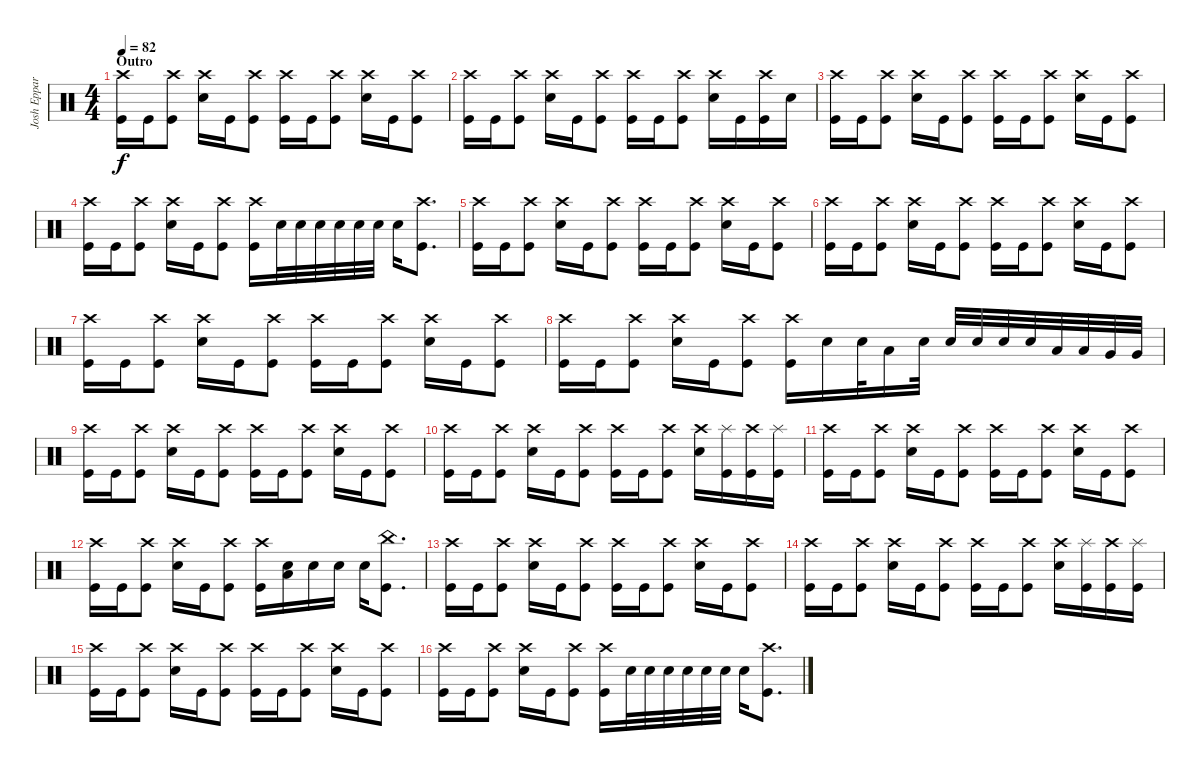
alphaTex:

\track ("Josh Eppard" "Josh Eppar") {instrument percussion}
\staff {score}
\articulation defaults
\ts (4 4)
\section ("" "Outro")
\tempo 82
\clef neutral
\ks c
("Crash high (hit)" "Kick (hit)").16{dy f} "Kick (hit)".16 ("Crash high (hit)" "Kick (hit)").8 ("Crash high (hit)" "Snare (hit) 2").16 "Kick (hit)".16 ("Crash high (hit)" "Kick (hit)").8 ("Crash high (hit)" "Kick (hit)").16 "Kick (hit)".16 ("Crash high (hit)" "Kick (hit)").8 ("Crash high (hit)" "Snare (hit) 2").16 "Kick (hit)".16 ("Crash high (hit)" "Kick (hit)").8 |
("Crash high (hit)" "Kick (hit)").16 "Kick (hit)".16 ("Crash high (hit)" "Kick (hit)").8 ("Crash high (hit)" "Snare (hit) 2").16 "Kick (hit)".16 ("Crash high (hit)" "Kick (hit)").8 ("Crash high (hit)" "Kick (hit)").16 "Kick (hit)".16 ("Crash high (hit)" "Kick (hit)").8 ("Crash high (hit)" "Snare (hit) 2").16 "Kick (hit)".16 ("Crash high (hit)" "Kick (hit)").16 "Snare (hit) 2".16 |
("Crash high (hit)" "Kick (hit)").16 "Kick (hit)".16 ("Crash high (hit)" "Kick (hit)").8 ("Crash high (hit)" "Snare (hit) 2").16 "Kick (hit)".16 ("Crash high (hit)" "Kick (hit)").8 ("Crash high (hit)" "Kick (hit)").16 "Kick (hit)".16 ("Crash high (hit)" "Kick (hit)").8 ("Crash high (hit)" "Snare (hit) 2").16 "Kick (hit)".16 ("Crash high (hit)" "Kick (hit)").8 |
("Crash high (hit)" "Kick (hit)").16 "Kick (hit)".16 ("Crash high (hit)" "Kick (hit)").8 ("Crash high (hit)" "Snare (hit) 2").16 "Kick (hit)".16 ("Crash high (hit)" "Kick (hit)").8 ("Crash high (hit)" "Kick (hit)").16 "Snare (hit) 2".32 "Snare (hit) 2".32 "Snare (hit) 2".32 "Snare (hit) 2".32 "Snare (hit) 2".32 "Snare (hit) 2".32 "Snare (hit) 2".16 ("Crash high (hit)" "Kick (hit)").8{d} |
("Crash high (hit)" "Kick (hit)").16 "Kick (hit)".16 ("Crash high (hit)" "Kick (hit)").8 ("Crash high (hit)" "Snare (hit) 2").16 "Kick (hit)".16 ("Crash high (hit)" "Kick (hit)").8 ("Crash high (hit)" "Kick (hit)").16 "Kick (hit)".16 ("Crash high (hit)" "Kick (hit)").8 ("Crash high (hit)" "Snare (hit) 2").16 "Kick (hit)".16 ("Crash high (hit)" "Kick (hit)").8 |
("Crash high (hit)" "Kick (hit)").16 "Kick (hit)".16 ("Crash high (hit)" "Kick (hit)").8 ("Crash high (hit)" "Snare (hit) 2").16 "Kick (hit)".16 ("Crash high (hit)" "Kick (hit)").8 ("Crash high (hit)" "Kick (hit)").16 "Kick (hit)".16 ("Crash high (hit)" "Kick (hit)").8 ("Crash high (hit)" "Snare (hit) 2").16 "Kick (hit)".16 ("Crash high (hit)" "Kick (hit)").8 |
("Crash high (hit)" "Kick (hit)").16 "Kick (hit)".16 ("Crash high (hit)" "Kick (hit)").8 ("Crash high (hit)" "Snare (hit) 2").16 "Kick (hit)".16 ("Crash high (hit)" "Kick (hit)").8 ("Crash high (hit)" "Kick (hit)").16 "Kick (hit)".16 ("Crash high (hit)" "Kick (hit)").8 ("Crash high (hit)" "Snare (hit) 2").16 "Kick (hit)".16 ("Crash high (hit)" "Kick (hit)").8 |
("Crash high (hit)" "Kick (hit)").16 "Kick (hit)".16 ("Crash high (hit)" "Kick (hit)").8 ("Crash high (hit)" "Snare (hit) 2").16 "Kick (hit)".16 ("Crash high (hit)" "Kick (hit)").8 ("Crash high (hit)" "Kick (hit)").16 "Snare (hit) 2".16 "Snare (hit) 2".32 "Low Tom (hit)".16 "Snare (hit) 2".32 "Snare (hit) 2".32 "Snare (hit) 2".32 "Snare (hit) 2".32 "Snare (hit) 2".32 "Low Tom (hit)".32 "Low Tom (hit)".32 "Very Low Tom (hit)".32 "Very Low Tom (hit)".32 |
("Crash high (hit)" "Kick (hit)").16 "Kick (hit)".16 ("Crash high (hit)" "Kick (hit)").8 ("Crash high (hit)" "Snare (hit) 2").16 "Kick (hit)".16 ("Crash high (hit)" "Kick (hit)").8 ("Crash high (hit)" "Kick (hit)").16 "Kick (hit)".16 ("Crash high (hit)" "Kick (hit)").8 ("Crash high (hit)" "Snare (hit) 2").16 "Kick (hit)".16 ("Crash high (hit)" "Kick (hit)").8 |
("Crash high (hit)" "Kick (hit)").16 "Kick (hit)".16 ("Crash high (hit)" "Kick (hit)").8 ("Crash high (hit)" "Snare (hit) 2").16 "Kick (hit)".16 ("Crash high (hit)" "Kick (hit)").8 ("Crash high (hit)" "Kick (hit)").16 "Kick (hit)".16 ("Crash high (hit)" "Kick (hit)").8 ("Crash high (hit)" "Snare (hit) 2").16 ("Kick (hit)" "Splash (hit)").16 ("Crash high (hit)" "Kick (hit)").16 ("Kick (hit)" "Splash (hit)").16 |
("Crash high (hit)" "Kick (hit)").16 "Kick (hit)".16 ("Crash high (hit)" "Kick (hit)").8 ("Crash high (hit)" "Snare (hit) 2").16 "Kick (hit)".16 ("Crash high (hit)" "Kick (hit)").8 ("Crash high (hit)" "Kick (hit)").16 "Kick (hit)".16 ("Crash high (hit)" "Kick (hit)").8 ("Crash high (hit)" "Snare (hit) 2").16 "Kick (hit)".16 ("Crash high (hit)" "Kick (hit)").8 |
("Crash high (hit)" "Kick (hit)").16 "Kick (hit)".16 ("Crash high (hit)" "Kick (hit)").8 ("Crash high (hit)" "Snare (hit) 2").16 "Kick (hit)".16 ("Crash high (hit)" "Kick (hit)").8 ("Crash high (hit)" "Kick (hit)").16 ("Snare (hit) 2" "Low Tom (hit)").16 "Snare (hit) 2".16 "Snare (hit) 2".16 "Snare (hit) 2".16 ("Kick (hit)" "China (hit)").8{d} |
("Crash high (hit)" "Kick (hit)").16 "Kick (hit)".16 ("Crash high (hit)" "Kick (hit)").8 ("Crash high (hit)" "Snare (hit) 2").16 "Kick (hit)".16 ("Crash high (hit)" "Kick (hit)").8 ("Crash high (hit)" "Kick (hit)").16 "Kick (hit)".16 ("Crash high (hit)" "Kick (hit)").8 ("Crash high (hit)" "Snare (hit) 2").16 "Kick (hit)".16 ("Crash high (hit)" "Kick (hit)").8 |
("Crash high (hit)" "Kick (hit)").16 "Kick (hit)".16 ("Crash high (hit)" "Kick (hit)").8 ("Crash high (hit)" "Snare (hit) 2").16 "Kick (hit)".16 ("Crash high (hit)" "Kick (hit)").8 ("Crash high (hit)" "Kick (hit)").16 "Kick (hit)".16 ("Crash high (hit)" "Kick (hit)").8 ("Crash high (hit)" "Snare (hit) 2").16 ("Kick (hit)" "Splash (hit)").16 ("Crash high (hit)" "Kick (hit)").16 ("Kick (hit)" "Splash (hit)").16 |
("Crash high (hit)" "Kick (hit)").16 "Kick (hit)".16 ("Crash high (hit)" "Kick (hit)").8 ("Crash high (hit)" "Snare (hit) 2").16 "Kick (hit)".16 ("Crash high (hit)" "Kick (hit)").8 ("Crash high (hit)" "Kick (hit)").16 "Kick (hit)".16 ("Crash high (hit)" "Kick (hit)").8 ("Crash high (hit)" "Snare (hit) 2").16 "Kick (hit)".16 ("Crash high (hit)" "Kick (hit)").8 |
("Crash high (hit)" "Kick (hit)").16 "Kick (hit)".16 ("Crash high (hit)" "Kick (hit)").8 ("Crash high (hit)" "Snare (hit) 2").16 "Kick (hit)".16 ("Crash high (hit)" "Kick (hit)").8 ("Crash high (hit)" "Kick (hit)").16 "Snare (hit) 2".32 "Snare (hit) 2".32 "Snare (hit) 2".32 "Snare (hit) 2".32 "Snare (hit) 2".32 "Snare (hit) 2".32 "Snare (hit) 2".16 ("Crash high (hit)" "Kick (hit)").8{d}
